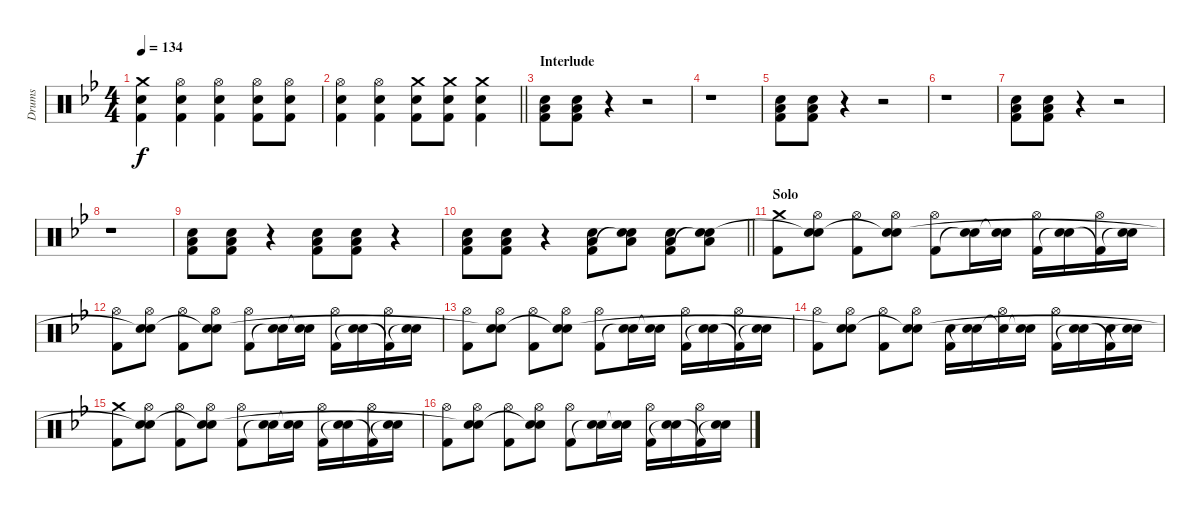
\track ("Drums" "Drums") {instrument percussion}
\staff {score}
\articulation defaults
\ts (4 4)
\tempo 134
\clef neutral
\ks gminor
("Crash medium (hit)" "Electric Snare (hit)" "Kick (hit) 2").4{dy f} ("Hi-Hat (open)" "Electric Snare (hit)" "Kick (hit) 2").4 ("Hi-Hat (open)" "Electric Snare (hit)" "Kick (hit) 2").4 ("Hi-Hat (open)" "Electric Snare (hit)" "Kick (hit) 2").8 ("Hi-Hat (open)" "Electric Snare (hit)" "Kick (hit) 2").8 |
\barLineRight lightlight
("Hi-Hat (open)" "Electric Snare (hit)" "Kick (hit) 2").4 ("Hi-Hat (open)" "Electric Snare (hit)" "Kick (hit) 2").4 ("Crash medium (hit)" "Electric Snare (hit)" "Kick (hit) 2").8 ("Crash medium (hit)" "Electric Snare (hit)" "Kick (hit) 2").8 ("Crash medium (hit)" "Electric Snare (hit)" "Kick (hit) 2").4 |
\section ("" "Interlude")
("Electric Snare (hit)" "Low Floor Tom (hit)" "Kick (hit) 2").8 ("Electric Snare (hit)" "Low Floor Tom (hit)" "Kick (hit) 2").8 r.4 r.2 |
r.1 |
("Electric Snare (hit)" "Low Floor Tom (hit)" "Kick (hit) 2").8 ("Electric Snare (hit)" "Low Floor Tom (hit)" "Kick (hit) 2").8 r.4 r.2 |
r.1 |
("Electric Snare (hit)" "Low Floor Tom (hit)" "Kick (hit) 2").8 ("Electric Snare (hit)" "Low Floor Tom (hit)" "Kick (hit) 2").8 r.4 r.2 |
r.1 |
("Electric Snare (hit)" "Low Floor Tom (hit)" "Kick (hit) 2").8 ("Electric Snare (hit)" "Low Floor Tom (hit)" "Kick (hit) 2").8 r.4 ("Electric Snare (hit)" "Low Floor Tom (hit)" "Kick (hit) 2").8 ("Electric Snare (hit)" "Low Floor Tom (hit)" "Kick (hit) 2").8 r.4 |
\barLineRight lightlight
("Electric Snare (hit)" "Low Floor Tom (hit)" "Kick (hit) 2").8 ("Electric Snare (hit)" "Low Floor Tom (hit)" "Kick (hit) 2").8 r.4 ("Electric Snare (hit)" "Low Floor Tom (hit)" "Kick (hit) 2").8 ("Electric Snare (hit)" "Low Floor Tom (hit)" "Snare (hit)"{t}).8 ("Electric Snare (hit)" "Low Floor Tom (hit)" "Kick (hit) 2").8 ("Electric Snare (hit)" "Low Floor Tom (hit)" "Snare (hit)"{t}).8 |
\section ("" "Solo")
("Crash medium (hit)" "Kick (hit) 2").8 ("Hi-Hat (open)" "Electric Snare (hit)" "Snare (hit)"{t}).8 ("Hi-Hat (open)" "Kick (hit) 2").8 ("Hi-Hat (open)" "Electric Snare (hit)" "Snare (hit)"{t}).8 ("Hi-Hat (open)" "Kick (hit) 2").8 ("Electric Snare (hit)" "Snare (hit)"{t}).16 ("Electric Snare (hit)" "Snare (hit)"{t}).16 ("Hi-Hat (open)" "Kick (hit) 2").16 ("Electric Snare (hit)" "Snare (hit)"{t}).16 ("Hi-Hat (open)" "Kick (hit) 2"{t}).16 ("Electric Snare (hit)" "Snare (hit)"{t}).16 |
("Hi-Hat (open)" "Kick (hit) 2").8 ("Hi-Hat (open)" "Electric Snare (hit)" "Snare (hit)"{t}).8 ("Hi-Hat (open)" "Kick (hit) 2").8 ("Hi-Hat (open)" "Electric Snare (hit)" "Snare (hit)"{t}).8 ("Hi-Hat (open)" "Kick (hit) 2").8 ("Electric Snare (hit)" "Snare (hit)"{t}).16 ("Electric Snare (hit)" "Snare (hit)"{t}).16 ("Hi-Hat (open)" "Kick (hit) 2").16 ("Electric Snare (hit)" "Snare (hit)"{t}).16 ("Hi-Hat (open)" "Kick (hit) 2"{t}).16 ("Electric Snare (hit)" "Snare (hit)"{t}).16 |
("Hi-Hat (open)" "Kick (hit) 2").8 ("Hi-Hat (open)" "Electric Snare (hit)" "Snare (hit)"{t}).8 ("Hi-Hat (open)" "Kick (hit) 2").8 ("Hi-Hat (open)" "Electric Snare (hit)" "Snare (hit)"{t}).8 ("Hi-Hat (open)" "Kick (hit) 2").8 ("Electric Snare (hit)" "Snare (hit)"{t}).16 ("Electric Snare (hit)" "Snare (hit)"{t}).16 ("Hi-Hat (open)" "Kick (hit) 2").16 ("Electric Snare (hit)" "Snare (hit)"{t}).16 ("Hi-Hat (open)" "Kick (hit) 2"{t}).16 ("Electric Snare (hit)" "Snare (hit)"{t}).16 |
("Hi-Hat (open)" "Kick (hit) 2").8 ("Hi-Hat (open)" "Electric Snare (hit)" "Snare (hit)"{t}).8 ("Hi-Hat (open)" "Kick (hit) 2").8 ("Hi-Hat (open)" "Electric Snare (hit)" "Snare (hit)"{t}).8 ("Electric Snare (hit)" "Kick (hit) 2").16 ("Electric Snare (hit)" "Snare (hit)"{t}).16 ("Hi-Hat (open)" "Snare (hit)"{t}).16 ("Electric Snare (hit)" "Snare (hit)"{t}).16 ("Hi-Hat (open)" "Kick (hit) 2").16 ("Electric Snare (hit)" "Snare (hit)"{t}).16 ("Electric Snare (hit)" "Kick (hit) 2"{t}).16 ("Electric Snare (hit)" "Snare (hit)"{t}).16 |
("Crash medium (hit)" "Kick (hit) 2").8 ("Hi-Hat (open)" "Electric Snare (hit)" "Snare (hit)"{t}).8 ("Hi-Hat (open)" "Kick (hit) 2").8 ("Hi-Hat (open)" "Electric Snare (hit)" "Snare (hit)"{t}).8 ("Hi-Hat (open)" "Kick (hit) 2").8 ("Electric Snare (hit)" "Snare (hit)"{t}).16 ("Electric Snare (hit)" "Snare (hit)"{t}).16 ("Hi-Hat (open)" "Kick (hit) 2").16 ("Electric Snare (hit)" "Snare (hit)"{t}).16 ("Hi-Hat (open)" "Kick (hit) 2"{t}).16 ("Electric Snare (hit)" "Snare (hit)"{t}).16 |
("Hi-Hat (open)" "Kick (hit) 2").8 ("Hi-Hat (open)" "Electric Snare (hit)" "Snare (hit)"{t}).8 ("Hi-Hat (open)" "Kick (hit) 2").8 ("Hi-Hat (open)" "Electric Snare (hit)" "Snare (hit)"{t}).8 ("Hi-Hat (open)" "Kick (hit) 2").8 ("Electric Snare (hit)" "Snare (hit)"{t}).16 ("Electric Snare (hit)" "Snare (hit)"{t}).16 ("Hi-Hat (open)" "Kick (hit) 2").16 ("Electric Snare (hit)" "Snare (hit)"{t}).16 ("Hi-Hat (open)" "Kick (hit) 2"{t}).16 ("Electric Snare (hit)" "Snare (hit)"{t}).16
